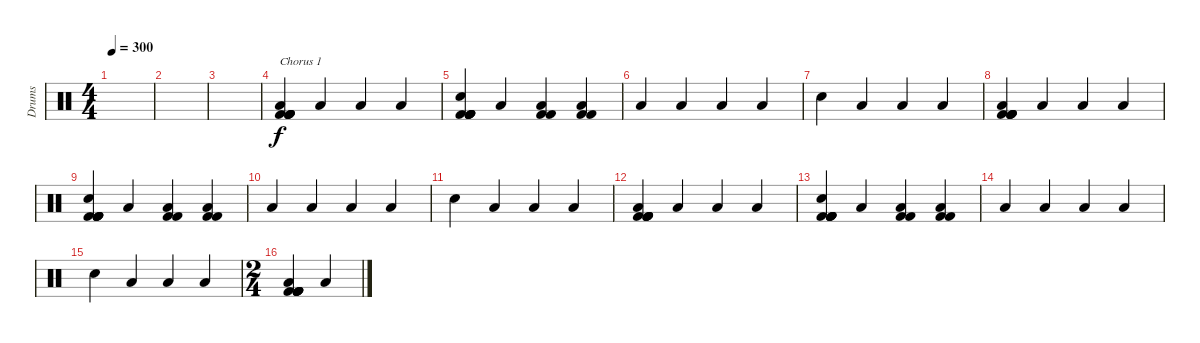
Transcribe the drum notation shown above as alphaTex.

\track ("Drums" "Drums") {instrument percussion}
\staff {score}
\articulation defaults
\ts (4 4)
\tempo 300
\clef neutral
\ks c
|
|
|
("Low Floor Tom (hit)" "Kick (hit) 2" "Kick (hit) 2" "Kick (hit) 2" "Kick (hit) 2" "Kick (hit) 2").4{txt "Chorus 1"} "Low Floor Tom (hit)".4 "Low Floor Tom (hit)".4 "Low Floor Tom (hit)".4 |
("Electric Snare (hit)" "Kick (hit) 2" "Kick (hit) 2" "Kick (hit) 2" "Kick (hit) 2" "Kick (hit) 2").4 "Low Floor Tom (hit)".4 ("Low Floor Tom (hit)" "Kick (hit) 2" "Kick (hit) 2").4 ("Low Floor Tom (hit)" "Kick (hit) 2" "Kick (hit) 2").4 |
"Low Floor Tom (hit)".4 "Low Floor Tom (hit)".4 "Low Floor Tom (hit)".4 "Low Floor Tom (hit)".4 |
"Electric Snare (hit)".4 "Low Floor Tom (hit)".4 "Low Floor Tom (hit)".4 "Low Floor Tom (hit)".4 |
("Low Floor Tom (hit)" "Kick (hit) 2" "Kick (hit) 2" "Kick (hit) 2" "Kick (hit) 2" "Kick (hit) 2").4 "Low Floor Tom (hit)".4 "Low Floor Tom (hit)".4 "Low Floor Tom (hit)".4 |
("Electric Snare (hit)" "Kick (hit) 2" "Kick (hit) 2" "Kick (hit) 2" "Kick (hit) 2" "Kick (hit) 2").4 "Low Floor Tom (hit)".4 ("Low Floor Tom (hit)" "Kick (hit) 2" "Kick (hit) 2").4 ("Low Floor Tom (hit)" "Kick (hit) 2" "Kick (hit) 2").4 |
"Low Floor Tom (hit)".4 "Low Floor Tom (hit)".4 "Low Floor Tom (hit)".4 "Low Floor Tom (hit)".4 |
"Electric Snare (hit)".4 "Low Floor Tom (hit)".4 "Low Floor Tom (hit)".4 "Low Floor Tom (hit)".4 |
("Low Floor Tom (hit)" "Kick (hit) 2" "Kick (hit) 2" "Kick (hit) 2" "Kick (hit) 2" "Kick (hit) 2").4 "Low Floor Tom (hit)".4 "Low Floor Tom (hit)".4 "Low Floor Tom (hit)".4 |
("Electric Snare (hit)" "Kick (hit) 2" "Kick (hit) 2" "Kick (hit) 2" "Kick (hit) 2" "Kick (hit) 2").4 "Low Floor Tom (hit)".4 ("Low Floor Tom (hit)" "Kick (hit) 2" "Kick (hit) 2").4 ("Low Floor Tom (hit)" "Kick (hit) 2" "Kick (hit) 2").4 |
"Low Floor Tom (hit)".4 "Low Floor Tom (hit)".4 "Low Floor Tom (hit)".4 "Low Floor Tom (hit)".4 |
"Electric Snare (hit)".4 "Low Floor Tom (hit)".4 "Low Floor Tom (hit)".4 "Low Floor Tom (hit)".4 |
\ts (2 4)
("Low Floor Tom (hit)" "Kick (hit) 2" "Kick (hit) 2" "Kick (hit) 2" "Kick (hit) 2" "Kick (hit) 2").4 "Low Floor Tom (hit)".4
